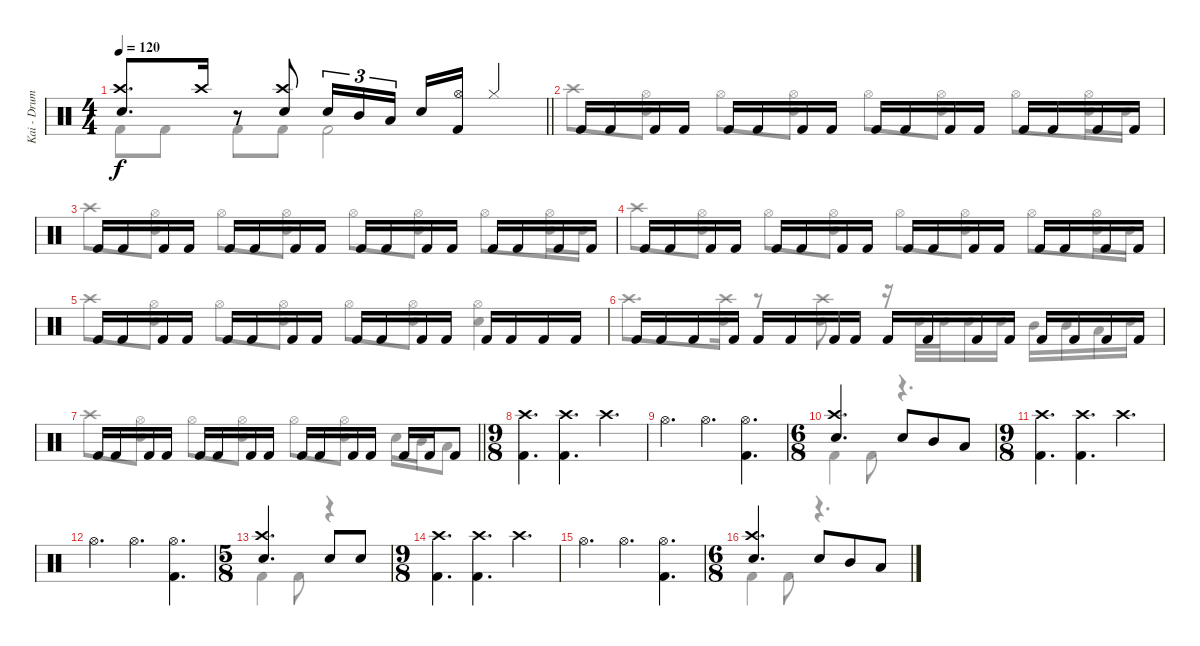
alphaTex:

\track ("Kai - Drums " "Kai - Drum") {instrument percussion}
\staff {score}
\articulation defaults
\voice
\ts (4 4)
\tempo 120
\clef neutral
\barLineRight lightlight
\ks c
("Crash high (hit)" "Electric Snare (hit)").8{d dy f} "Crash high (hit)".16 r.8 ("Crash high (hit)" "Electric Snare (hit)").8 "Electric Snare (hit)".16{tu (3 2)} "Mid Tom (hit)".16{tu (3 2)} "Low Tom (hit)".16{tu (3 2) beam splitsecondary} "Electric Snare (hit)".16 ("Hi-Hat (open)" "Kick (hit) 2").16 "Hi-Hat (closed)".4 |
"Kick (hit) 2".16 "Kick (hit) 2".16 "Kick (hit) 2".16 "Kick (hit) 2".16 "Kick (hit) 2".16 "Kick (hit) 2".16 "Kick (hit) 2".16 "Kick (hit) 2".16 "Kick (hit) 2".16 "Kick (hit) 2".16 "Kick (hit) 2".16 "Kick (hit) 2".16 "Kick (hit) 2".16 "Kick (hit) 2".16 "Kick (hit) 2".16 "Kick (hit) 2".16 |
"Kick (hit) 2".16 "Kick (hit) 2".16 "Kick (hit) 2".16 "Kick (hit) 2".16 "Kick (hit) 2".16 "Kick (hit) 2".16 "Kick (hit) 2".16 "Kick (hit) 2".16 "Kick (hit) 2".16 "Kick (hit) 2".16 "Kick (hit) 2".16 "Kick (hit) 2".16 "Kick (hit) 2".16 "Kick (hit) 2".16 "Kick (hit) 2".16 "Kick (hit) 2".16 |
"Kick (hit) 2".16 "Kick (hit) 2".16 "Kick (hit) 2".16 "Kick (hit) 2".16 "Kick (hit) 2".16 "Kick (hit) 2".16 "Kick (hit) 2".16 "Kick (hit) 2".16 "Kick (hit) 2".16 "Kick (hit) 2".16 "Kick (hit) 2".16 "Kick (hit) 2".16 "Kick (hit) 2".16 "Kick (hit) 2".16 "Kick (hit) 2".16 "Kick (hit) 2".16 |
"Kick (hit) 2".16 "Kick (hit) 2".16 "Kick (hit) 2".16 "Kick (hit) 2".16 "Kick (hit) 2".16 "Kick (hit) 2".16 "Kick (hit) 2".16 "Kick (hit) 2".16 "Kick (hit) 2".16 "Kick (hit) 2".16 "Kick (hit) 2".16 "Kick (hit) 2".16 "Kick (hit) 2".16 "Kick (hit) 2".16 "Kick (hit) 2".16 "Kick (hit) 2".16 |
"Kick (hit) 2".16 "Kick (hit) 2".16 "Kick (hit) 2".16 "Kick (hit) 2".16 "Kick (hit) 2".16 "Kick (hit) 2".16 "Kick (hit) 2".16 "Kick (hit) 2".16 "Kick (hit) 2".16 "Kick (hit) 2".16 "Kick (hit) 2".16 "Kick (hit) 2".16 "Kick (hit) 2".16 "Kick (hit) 2".16 "Kick (hit) 2".16 "Kick (hit) 2".16 |
\barLineRight lightlight "Kick (hit) 2".16 "Kick (hit) 2".16 "Kick (hit) 2".16 "Kick (hit) 2".16 "Kick (hit) 2".16 "Kick (hit) 2".16 "Kick (hit) 2".16 "Kick (hit) 2".16 "Kick (hit) 2".16 "Kick (hit) 2".16 "Kick (hit) 2".16 "Kick (hit) 2".16 "Kick (hit) 2".16 "Kick (hit) 2".16 "Kick (hit) 2".8
|
\ts (9 8)
("Crash high (hit)" "Kick (hit) 2").4{d} ("Crash high (hit)" "Kick (hit) 2").4{d} "Crash high (hit)".4{d} |
"Hi-Hat (open)".4{d} "Hi-Hat (open)".4{d} ("Hi-Hat (open)" "Kick (hit) 2").4{d} |
\ts (6 8)
("Crash high (hit)" "Electric Snare (hit)").4{d} "Electric Snare (hit)".8 "Mid Tom (hit)".8 "Low Tom (hit)".8 |
\ts (9 8)
("Crash high (hit)" "Kick (hit) 2").4{d} ("Crash high (hit)" "Kick (hit) 2").4{d} "Crash high (hit)".4{d} |
"Hi-Hat (open)".4{d} "Hi-Hat (open)".4{d} ("Hi-Hat (open)" "Kick (hit) 2").4{d} |
\ts (5 8)
("Crash high (hit)" "Electric Snare (hit)").4{d} "Electric Snare (hit)".8 "Electric Snare (hit)".8 |
\ts (9 8)
("Crash high (hit)" "Kick (hit) 2").4{d} ("Crash high (hit)" "Kick (hit) 2").4{d} "Crash high (hit)".4{d} |
"Hi-Hat (open)".4{d} "Hi-Hat (open)".4{d} ("Hi-Hat (open)" "Kick (hit) 2").4{d} |
\ts (6 8)
("Crash high (hit)" "Electric Snare (hit)").4{d} "Electric Snare (hit)".8 "Mid Tom (hit)".8 "Low Tom (hit)".8
\voice
\clef neutral
\ottava regular
\simile none
\barLineRight lightlight
\ks c "Kick (hit) 2".8{dy f} "Kick (hit) 2".8 "Kick (hit) 2".8 "Kick (hit) 2".8 "Kick (hit) 2".2
|
"Crash high (hit)".8 ("Hi-Hat (open)" "Electric Snare (hit)").8 "Hi-Hat (open)".8 ("Hi-Hat (open)" "Electric Snare (hit)").8 "Hi-Hat (open)".8 ("Hi-Hat (open)" "Electric Snare (hit)").8 "Hi-Hat (open)".8 ("Hi-Hat (open)" "Electric Snare (hit)").16 "Electric Snare (hit)".16 |
"Crash high (hit)".8 ("Hi-Hat (open)" "Electric Snare (hit)").8 "Hi-Hat (open)".8 ("Hi-Hat (open)" "Electric Snare (hit)").8 "Hi-Hat (open)".8 ("Hi-Hat (open)" "Electric Snare (hit)").8 "Hi-Hat (open)".8 ("Hi-Hat (open)" "Electric Snare (hit)").16 "Electric Snare (hit)".16 |
"Crash high (hit)".8 ("Hi-Hat (open)" "Electric Snare (hit)").8 "Hi-Hat (open)".8 ("Hi-Hat (open)" "Electric Snare (hit)").8 "Hi-Hat (open)".8 ("Hi-Hat (open)" "Electric Snare (hit)").8 "Hi-Hat (open)".8 ("Hi-Hat (open)" "Electric Snare (hit)").16 "Electric Snare (hit)".16 |
"Crash high (hit)".8 ("Hi-Hat (open)" "Electric Snare (hit)").8 "Hi-Hat (open)".8 ("Hi-Hat (open)" "Electric Snare (hit)").8 "Hi-Hat (open)".8 ("Hi-Hat (open)" "Electric Snare (hit)").8 ("Hi-Hat (open)" "Electric Snare (hit)").4 |
"Crash high (hit)".8{d} ("Crash high (hit)" "Electric Snare (hit)").16 r.8 ("Crash high (hit)" "Electric Snare (hit)").8 r.16 "Electric Snare (hit)".32 "Electric Snare (hit)".32 "Electric Snare (hit)".16 "Electric Snare (hit)".16 "Mid Tom (hit)".16 "Mid Tom (hit)".16 "Low Tom (hit)".16 "Electric Snare (hit)".16 |
\barLineRight lightlight "Crash high (hit)".8
("Hi-Hat (open)" "Electric Snare (hit)").8 "Hi-Hat (open)".8 ("Hi-Hat (open)" "Electric Snare (hit)").8 "Hi-Hat (open)".8 ("Hi-Hat (open)" "Electric Snare (hit)").8 "Electric Snare (hit)".16 "Mid Tom (hit)".16 "Low Tom (hit)".8 |
|
|
"Kick (hit) 2".4 "Kick (hit) 2".8 r.4{d} |
|
|
"Kick (hit) 2".4 "Kick (hit) 2".8 r.4 |
|
|
"Kick (hit) 2".4 "Kick (hit) 2".8 r.4{d}
